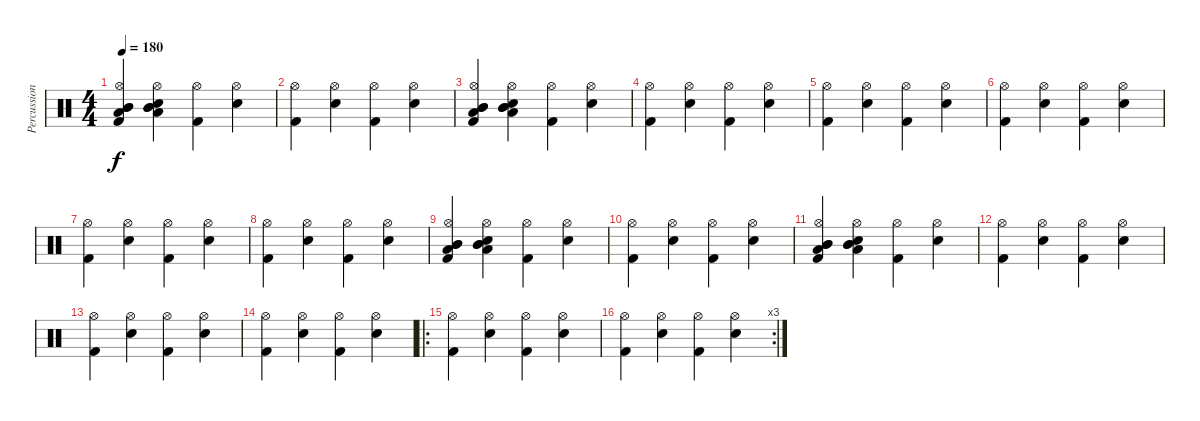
\track ("Percussion" "Percussion") {instrument percussion}
\staff {score}
\articulation defaults
\ts (4 4)
\tempo 180
\clef neutral
\ks c
("Low Tom (hit)" "Mid Tom (hit)" "Mid Tom (hit)" "Hi-Hat (open)" "Kick (hit) 2").4{dy f} ("Low Tom (hit)" "Mid Tom (hit)" "Mid Tom (hit)" "Hi-Hat (open)" "Electric Snare (hit)").4 ("Hi-Hat (open)" "Kick (hit) 2").4 ("Hi-Hat (open)" "Electric Snare (hit)").4 |
("Hi-Hat (open)" "Kick (hit) 2").4 ("Hi-Hat (open)" "Electric Snare (hit)").4 ("Hi-Hat (open)" "Kick (hit) 2").4 ("Hi-Hat (open)" "Electric Snare (hit)").4 |
("Low Tom (hit)" "Mid Tom (hit)" "Mid Tom (hit)" "Hi-Hat (open)" "Kick (hit) 2").4 ("Low Tom (hit)" "Mid Tom (hit)" "Mid Tom (hit)" "Hi-Hat (open)" "Electric Snare (hit)").4 ("Hi-Hat (open)" "Kick (hit) 2").4 ("Hi-Hat (open)" "Electric Snare (hit)").4 |
("Hi-Hat (open)" "Kick (hit) 2").4 ("Hi-Hat (open)" "Electric Snare (hit)").4 ("Hi-Hat (open)" "Kick (hit) 2").4 ("Hi-Hat (open)" "Electric Snare (hit)").4 |
("Hi-Hat (open)" "Kick (hit) 2").4 ("Hi-Hat (open)" "Electric Snare (hit)").4 ("Hi-Hat (open)" "Kick (hit) 2").4 ("Hi-Hat (open)" "Electric Snare (hit)").4 |
("Hi-Hat (open)" "Kick (hit) 2").4 ("Hi-Hat (open)" "Electric Snare (hit)").4 ("Hi-Hat (open)" "Kick (hit) 2").4 ("Hi-Hat (open)" "Electric Snare (hit)").4 |
("Hi-Hat (open)" "Kick (hit) 2").4 ("Hi-Hat (open)" "Electric Snare (hit)").4 ("Hi-Hat (open)" "Kick (hit) 2").4 ("Hi-Hat (open)" "Electric Snare (hit)").4 |
("Hi-Hat (open)" "Kick (hit) 2").4 ("Hi-Hat (open)" "Electric Snare (hit)").4 ("Hi-Hat (open)" "Kick (hit) 2").4 ("Hi-Hat (open)" "Electric Snare (hit)").4 |
("Low Tom (hit)" "Mid Tom (hit)" "Mid Tom (hit)" "Hi-Hat (open)" "Kick (hit) 2").4 ("Low Tom (hit)" "Mid Tom (hit)" "Mid Tom (hit)" "Hi-Hat (open)" "Electric Snare (hit)").4 ("Hi-Hat (open)" "Kick (hit) 2").4 ("Hi-Hat (open)" "Electric Snare (hit)").4 |
("Hi-Hat (open)" "Kick (hit) 2").4 ("Hi-Hat (open)" "Electric Snare (hit)").4 ("Hi-Hat (open)" "Kick (hit) 2").4 ("Hi-Hat (open)" "Electric Snare (hit)").4 |
("Low Tom (hit)" "Mid Tom (hit)" "Mid Tom (hit)" "Hi-Hat (open)" "Kick (hit) 2").4 ("Low Tom (hit)" "Mid Tom (hit)" "Mid Tom (hit)" "Hi-Hat (open)" "Electric Snare (hit)").4 ("Hi-Hat (open)" "Kick (hit) 2").4 ("Hi-Hat (open)" "Electric Snare (hit)").4 |
("Hi-Hat (open)" "Kick (hit) 2").4 ("Hi-Hat (open)" "Electric Snare (hit)").4 ("Hi-Hat (open)" "Kick (hit) 2").4 ("Hi-Hat (open)" "Electric Snare (hit)").4 |
("Hi-Hat (open)" "Kick (hit) 2").4 ("Hi-Hat (open)" "Electric Snare (hit)").4 ("Hi-Hat (open)" "Kick (hit) 2").4 ("Hi-Hat (open)" "Electric Snare (hit)").4 |
("Hi-Hat (open)" "Kick (hit) 2").4 ("Hi-Hat (open)" "Electric Snare (hit)").4 ("Hi-Hat (open)" "Kick (hit) 2").4 ("Hi-Hat (open)" "Electric Snare (hit)").4 |
\ro
("Hi-Hat (open)" "Kick (hit) 2").4 ("Hi-Hat (open)" "Electric Snare (hit)").4 ("Hi-Hat (open)" "Kick (hit) 2").4 ("Hi-Hat (open)" "Electric Snare (hit)").4 |
\rc 3
("Hi-Hat (open)" "Kick (hit) 2").4 ("Hi-Hat (open)" "Electric Snare (hit)").4 ("Hi-Hat (open)" "Kick (hit) 2").4 ("Hi-Hat (open)" "Electric Snare (hit)").4
